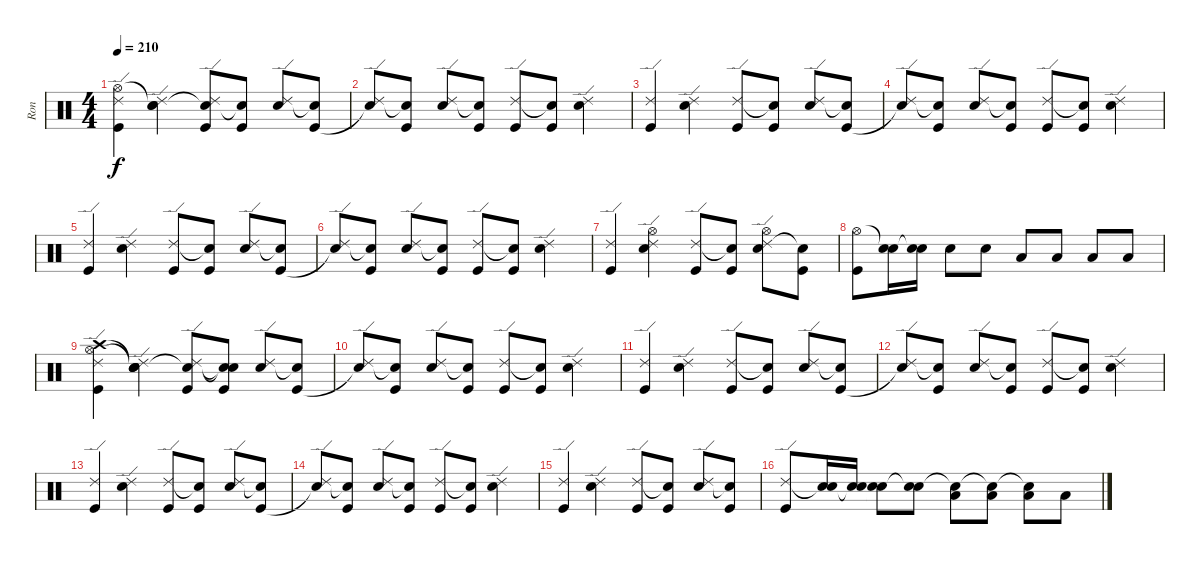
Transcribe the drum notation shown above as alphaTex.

\track ("Ron" "Ron") {instrument percussion}
\staff {score}
\articulation defaults
\ts (4 4)
\tempo 210
\clef neutral
\ks c
("Hi-Hat (open)" "Ride (edge) 2" "Kick (hit)").4{dy f} ("Snare (hit)"{t} "Ride (edge) 2" "Electric Snare (hit)").4 ("Snare (hit)"{t} "Ride (edge) 2" "Kick (hit)").8 ("Snare (hit)"{t} "Kick (hit)").8 ("Ride (edge) 2" "Electric Snare (hit)").8 ("Snare (hit)"{t} "Kick (hit)").8 |
("Ride (edge) 2" "Snare (hit)"{t}).8 ("Snare (hit)"{t} "Kick (hit)").8 ("Ride (edge) 2" "Electric Snare (hit)").8 ("Snare (hit)"{t} "Kick (hit)").8 ("Ride (edge) 2" "Kick (hit)").8 ("Snare (hit)"{t} "Kick (hit)").8 ("Ride (edge) 2" "Electric Snare (hit)").4 |
("Ride (edge) 2" "Kick (hit)").4 ("Ride (edge) 2" "Electric Snare (hit)").4 ("Ride (edge) 2" "Kick (hit)").8 ("Snare (hit)"{t} "Kick (hit)").8 ("Ride (edge) 2" "Electric Snare (hit)").8 ("Snare (hit)"{t} "Kick (hit)").8 |
("Ride (edge) 2" "Snare (hit)"{t}).8 ("Snare (hit)"{t} "Kick (hit)").8 ("Ride (edge) 2" "Electric Snare (hit)").8 ("Snare (hit)"{t} "Kick (hit)").8 ("Ride (edge) 2" "Kick (hit)").8 ("Snare (hit)"{t} "Kick (hit)").8 ("Ride (edge) 2" "Electric Snare (hit)").4 |
("Ride (edge) 2" "Kick (hit)").4 ("Ride (edge) 2" "Electric Snare (hit)").4 ("Ride (edge) 2" "Kick (hit)").8 ("Snare (hit)"{t} "Kick (hit)").8 ("Ride (edge) 2" "Electric Snare (hit)").8 ("Snare (hit)"{t} "Kick (hit)").8 |
("Ride (edge) 2" "Snare (hit)"{t}).8 ("Snare (hit)"{t} "Kick (hit)").8 ("Ride (edge) 2" "Electric Snare (hit)").8 ("Snare (hit)"{t} "Kick (hit)").8 ("Ride (edge) 2" "Kick (hit)").8 ("Snare (hit)"{t} "Kick (hit)").8 ("Ride (edge) 2" "Electric Snare (hit)").4 |
("Ride (edge) 2" "Kick (hit)").4 ("Ride (edge) 2" "Hi-Hat (open)" "Electric Snare (hit)").4 ("Ride (edge) 2" "Kick (hit)").8 ("Snare (hit)"{t} "Kick (hit)").8 ("Ride (edge) 2" "Hi-Hat (open)" "Electric Snare (hit)").8 ("Snare (hit)"{t} "Kick (hit)").8 |
("Hi-Hat (open)" "Kick (hit)").8 ("Snare (hit)"{t} "Electric Snare (hit)").16 ("Snare (hit)"{t} "Electric Snare (hit)").16 "Electric Snare (hit)".8 "Electric Snare (hit)".8 "Low Floor Tom (hit)".8 "Low Floor Tom (hit)".8 "Low Floor Tom (hit)".8 "Low Floor Tom (hit)".8 |
("Hi-Hat (open)" "Crash high (hit)" "Ride (edge) 2" "Kick (hit)").4 ("Snare (hit)"{t} "Snare (hit)"{t} "Ride (edge) 2" "Electric Snare (hit)").4 ("Snare (hit)"{t} "Ride (edge) 2" "Kick (hit)").8 ("Snare (hit)"{t} "Snare (hit)"{t} "Kick (hit)").8 ("Ride (edge) 2" "Electric Snare (hit)").8 ("Snare (hit)"{t} "Kick (hit)").8 |
("Ride (edge) 2" "Snare (hit)"{t}).8 ("Snare (hit)"{t} "Kick (hit)").8 ("Ride (edge) 2" "Electric Snare (hit)").8 ("Snare (hit)"{t} "Kick (hit)").8 ("Ride (edge) 2" "Kick (hit)").8 ("Snare (hit)"{t} "Kick (hit)").8 ("Ride (edge) 2" "Electric Snare (hit)").4 |
("Ride (edge) 2" "Kick (hit)").4 ("Ride (edge) 2" "Electric Snare (hit)").4 ("Ride (edge) 2" "Kick (hit)").8 ("Snare (hit)"{t} "Kick (hit)").8 ("Ride (edge) 2" "Electric Snare (hit)").8 ("Snare (hit)"{t} "Kick (hit)").8 |
("Ride (edge) 2" "Snare (hit)"{t}).8 ("Snare (hit)"{t} "Kick (hit)").8 ("Ride (edge) 2" "Electric Snare (hit)").8 ("Snare (hit)"{t} "Kick (hit)").8 ("Ride (edge) 2" "Kick (hit)").8 ("Snare (hit)"{t} "Kick (hit)").8 ("Ride (edge) 2" "Electric Snare (hit)").4 |
("Ride (edge) 2" "Kick (hit)").4 ("Ride (edge) 2" "Electric Snare (hit)").4 ("Ride (edge) 2" "Kick (hit)").8 ("Snare (hit)"{t} "Kick (hit)").8 ("Ride (edge) 2" "Electric Snare (hit)").8 ("Snare (hit)"{t} "Kick (hit)").8 |
("Ride (edge) 2" "Snare (hit)"{t}).8 ("Snare (hit)"{t} "Kick (hit)").8 ("Ride (edge) 2" "Electric Snare (hit)").8 ("Snare (hit)"{t} "Kick (hit)").8 ("Ride (edge) 2" "Kick (hit)").8 ("Snare (hit)"{t} "Kick (hit)").8 ("Ride (edge) 2" "Electric Snare (hit)").4 |
("Ride (edge) 2" "Kick (hit)").4 ("Ride (edge) 2" "Electric Snare (hit)").4 ("Ride (edge) 2" "Kick (hit)").8 ("Snare (hit)"{t} "Kick (hit)").8 ("Ride (edge) 2" "Electric Snare (hit)").8 ("Snare (hit)"{t} "Kick (hit)").8 |
("Ride (edge) 2" "Kick (hit)").8 ("Snare (hit)"{t} "Electric Snare (hit)").16 ("Snare (hit)"{t} "Electric Snare (hit)").16 ("Snare (hit)"{t} "Electric Snare (hit)").8 ("Snare (hit)"{t} "Electric Snare (hit)").8 ("Snare (hit)"{t} "Low Floor Tom (hit)").8 ("Snare (hit)"{t} "Low Floor Tom (hit)").8 ("Snare (hit)"{t} "Low Floor Tom (hit)").8 "Low Floor Tom (hit)".8
